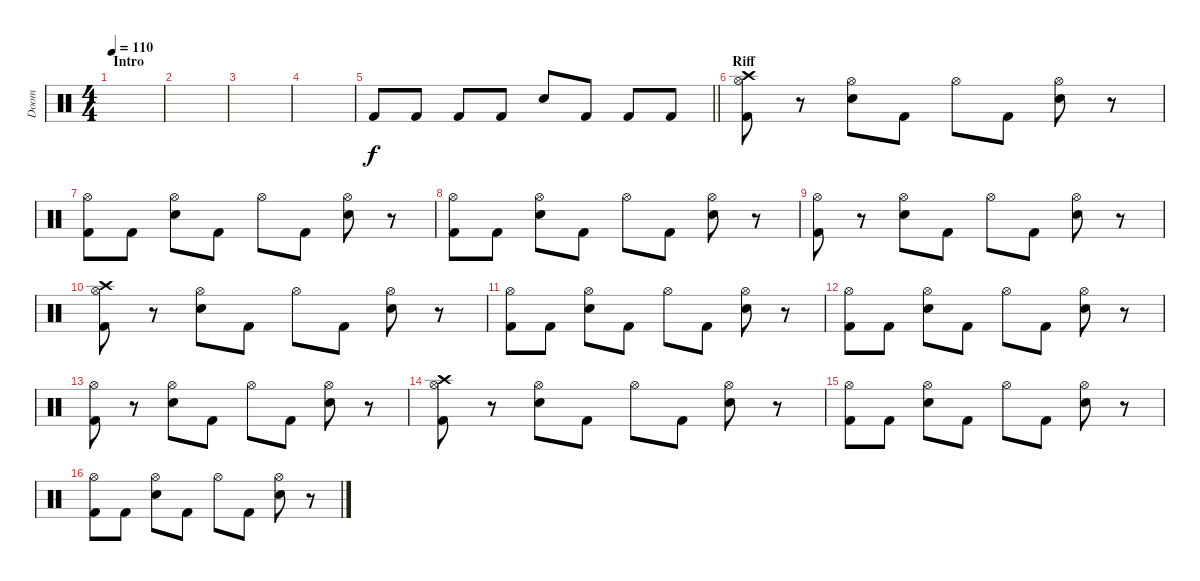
\track ("Doom" "Doom") {instrument percussion}
\staff {score}
\articulation defaults
\ts (4 4)
\section ("" "Intro")
\tempo 110
\clef neutral
\ks c
|
|
|
|
\barLineRight lightlight "Kick (hit) 2".8 "Kick (hit) 2".8 "Kick (hit) 2".8 "Kick (hit) 2".8 "Electric Snare (hit)".8 "Kick (hit) 2".8 "Kick (hit) 2".8 "Kick (hit) 2".8
|
\section ("" "Riff")
("Crash high (hit)" "Hi-Hat (open)" "Kick (hit) 2").8 r.8 ("Hi-Hat (open)" "Electric Snare (hit)").8 "Kick (hit) 2".8 "Hi-Hat (open)".8 "Kick (hit) 2".8 ("Hi-Hat (open)" "Electric Snare (hit)").8 r.8 |
("Hi-Hat (open)" "Kick (hit) 2").8 "Kick (hit) 2".8 ("Hi-Hat (open)" "Electric Snare (hit)").8 "Kick (hit) 2".8 "Hi-Hat (open)".8 "Kick (hit) 2".8 ("Hi-Hat (open)" "Electric Snare (hit)").8 r.8 |
("Hi-Hat (open)" "Kick (hit) 2").8 "Kick (hit) 2".8 ("Hi-Hat (open)" "Electric Snare (hit)").8 "Kick (hit) 2".8 "Hi-Hat (open)".8 "Kick (hit) 2".8 ("Hi-Hat (open)" "Electric Snare (hit)").8 r.8 |
("Hi-Hat (open)" "Kick (hit) 2").8 r.8 ("Hi-Hat (open)" "Electric Snare (hit)").8 "Kick (hit) 2".8 "Hi-Hat (open)".8 "Kick (hit) 2".8 ("Hi-Hat (open)" "Electric Snare (hit)").8 r.8 |
("Crash high (hit)" "Hi-Hat (open)" "Kick (hit) 2").8 r.8 ("Hi-Hat (open)" "Electric Snare (hit)").8 "Kick (hit) 2".8 "Hi-Hat (open)".8 "Kick (hit) 2".8 ("Hi-Hat (open)" "Electric Snare (hit)").8 r.8 |
("Hi-Hat (open)" "Kick (hit) 2").8 "Kick (hit) 2".8 ("Hi-Hat (open)" "Electric Snare (hit)").8 "Kick (hit) 2".8 "Hi-Hat (open)".8 "Kick (hit) 2".8 ("Hi-Hat (open)" "Electric Snare (hit)").8 r.8 |
("Hi-Hat (open)" "Kick (hit) 2").8 "Kick (hit) 2".8 ("Hi-Hat (open)" "Electric Snare (hit)").8 "Kick (hit) 2".8 "Hi-Hat (open)".8 "Kick (hit) 2".8 ("Hi-Hat (open)" "Electric Snare (hit)").8 r.8 |
("Hi-Hat (open)" "Kick (hit) 2").8 r.8 ("Hi-Hat (open)" "Electric Snare (hit)").8 "Kick (hit) 2".8 "Hi-Hat (open)".8 "Kick (hit) 2".8 ("Hi-Hat (open)" "Electric Snare (hit)").8 r.8 |
("Crash high (hit)" "Hi-Hat (open)" "Kick (hit) 2").8 r.8 ("Hi-Hat (open)" "Electric Snare (hit)").8 "Kick (hit) 2".8 "Hi-Hat (open)".8 "Kick (hit) 2".8 ("Hi-Hat (open)" "Electric Snare (hit)").8 r.8 |
("Hi-Hat (open)" "Kick (hit) 2").8 "Kick (hit) 2".8 ("Hi-Hat (open)" "Electric Snare (hit)").8 "Kick (hit) 2".8 "Hi-Hat (open)".8 "Kick (hit) 2".8 ("Hi-Hat (open)" "Electric Snare (hit)").8 r.8 |
("Hi-Hat (open)" "Kick (hit) 2").8 "Kick (hit) 2".8 ("Hi-Hat (open)" "Electric Snare (hit)").8 "Kick (hit) 2".8 "Hi-Hat (open)".8 "Kick (hit) 2".8 ("Hi-Hat (open)" "Electric Snare (hit)").8 r.8
